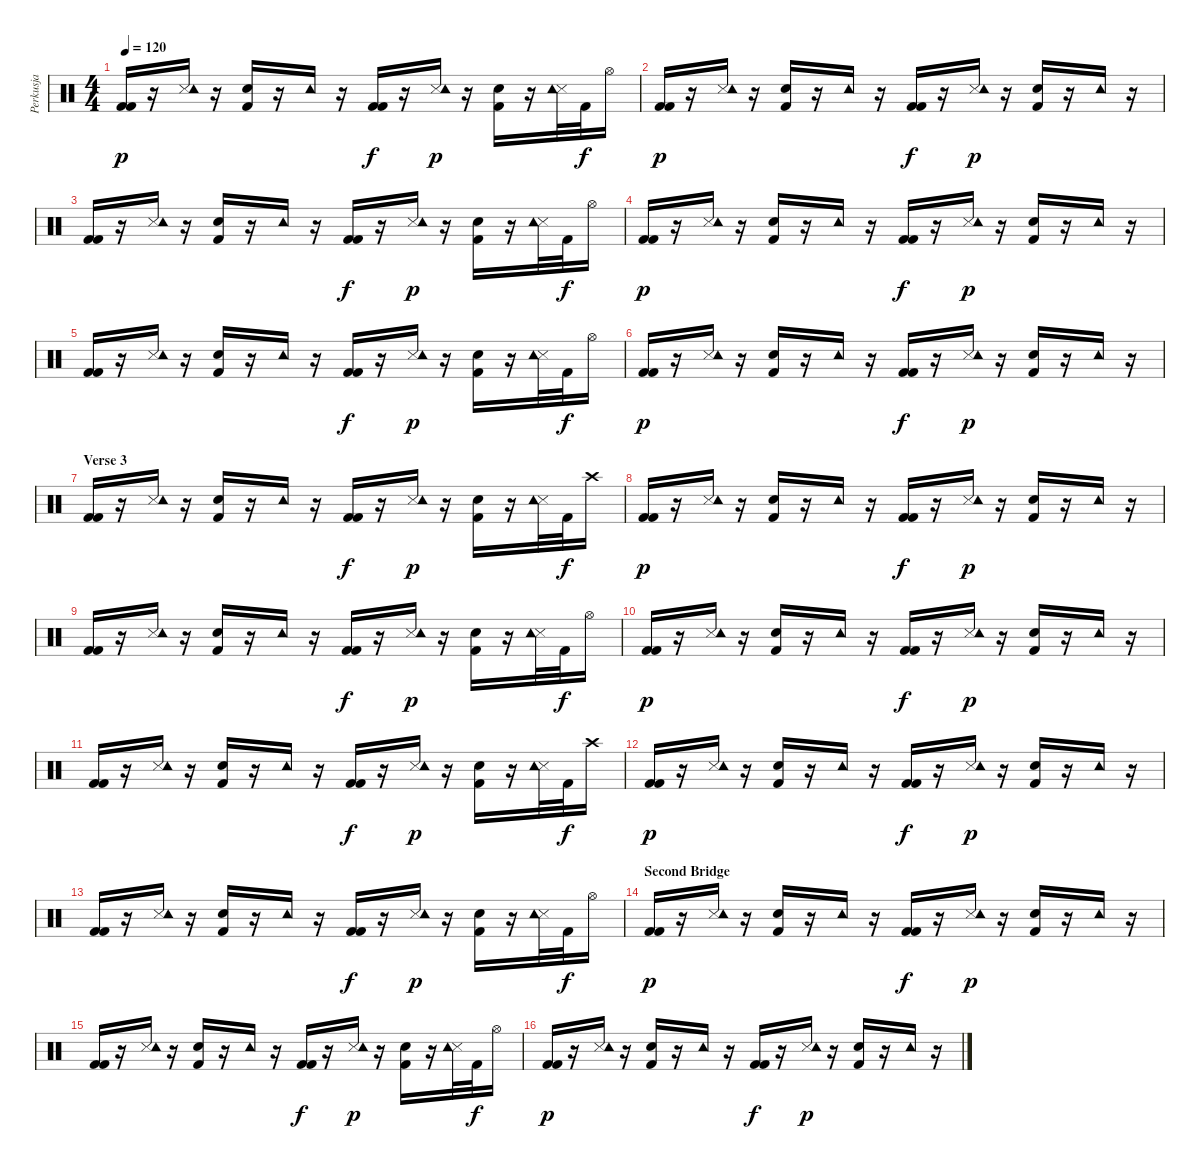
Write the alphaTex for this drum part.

\track ("Perkusja" "Perkusja") {instrument percussion}
\staff {score}
\articulation defaults
\ts (4 4)
\tempo 120
\clef neutral
\ks c
("Kick (hit) 2" "Kick (hit) 2").16{dy p} r.16 ("Snare (side stick) 3" "Tambourine (hit)").16 r.16 ("Electric Snare (hit)" "Kick (hit) 2").16 r.16 "Tambourine (hit)".16 r.16 ("Kick (hit) 2" "Kick (hit) 2").16{dy f} r.16 ("Snare (side stick) 3" "Tambourine (hit)").16{dy p} r.16 ("Electric Snare (hit)" "Kick (hit) 2").16 r.16 ("Snare (side stick) 3" "Tambourine (hit)").32 "Kick (hit) 2".32{dy f} "Hi-Hat (open)".16 |
("Kick (hit) 2" "Kick (hit) 2").16{dy p} r.16 ("Snare (side stick) 3" "Tambourine (hit)").16 r.16 ("Electric Snare (hit)" "Kick (hit) 2").16 r.16 "Tambourine (hit)".16 r.16 ("Kick (hit) 2" "Kick (hit) 2").16{dy f} r.16 ("Snare (side stick) 3" "Tambourine (hit)").16{dy p} r.16 ("Electric Snare (hit)" "Kick (hit) 2").16 r.16 "Tambourine (hit)".16 r.16 |
("Kick (hit) 2" "Kick (hit) 2").16 r.16 ("Snare (side stick) 3" "Tambourine (hit)").16 r.16 ("Electric Snare (hit)" "Kick (hit) 2").16 r.16 "Tambourine (hit)".16 r.16 ("Kick (hit) 2" "Kick (hit) 2").16{dy f} r.16 ("Snare (side stick) 3" "Tambourine (hit)").16{dy p} r.16 ("Electric Snare (hit)" "Kick (hit) 2").16 r.16 ("Snare (side stick) 3" "Tambourine (hit)").32 "Kick (hit) 2".32{dy f} "Hi-Hat (open)".16 |
("Kick (hit) 2" "Kick (hit) 2").16{dy p} r.16 ("Snare (side stick) 3" "Tambourine (hit)").16 r.16 ("Electric Snare (hit)" "Kick (hit) 2").16 r.16 "Tambourine (hit)".16 r.16 ("Kick (hit) 2" "Kick (hit) 2").16{dy f} r.16 ("Snare (side stick) 3" "Tambourine (hit)").16{dy p} r.16 ("Electric Snare (hit)" "Kick (hit) 2").16 r.16 "Tambourine (hit)".16 r.16 |
("Kick (hit) 2" "Kick (hit) 2").16 r.16 ("Snare (side stick) 3" "Tambourine (hit)").16 r.16 ("Electric Snare (hit)" "Kick (hit) 2").16 r.16 "Tambourine (hit)".16 r.16 ("Kick (hit) 2" "Kick (hit) 2").16{dy f} r.16 ("Snare (side stick) 3" "Tambourine (hit)").16{dy p} r.16 ("Electric Snare (hit)" "Kick (hit) 2").16 r.16 ("Snare (side stick) 3" "Tambourine (hit)").32 "Kick (hit) 2".32{dy f} "Hi-Hat (open)".16 |
("Kick (hit) 2" "Kick (hit) 2").16{dy p} r.16 ("Snare (side stick) 3" "Tambourine (hit)").16 r.16 ("Electric Snare (hit)" "Kick (hit) 2").16 r.16 "Tambourine (hit)".16 r.16 ("Kick (hit) 2" "Kick (hit) 2").16{dy f} r.16 ("Snare (side stick) 3" "Tambourine (hit)").16{dy p} r.16 ("Electric Snare (hit)" "Kick (hit) 2").16 r.16 "Tambourine (hit)".16 r.16 |
\section ("" "Verse 3")
("Kick (hit) 2" "Kick (hit) 2").16 r.16 ("Snare (side stick) 3" "Tambourine (hit)").16 r.16 ("Electric Snare (hit)" "Kick (hit) 2").16 r.16 "Tambourine (hit)".16 r.16 ("Kick (hit) 2" "Kick (hit) 2").16{dy f} r.16 ("Snare (side stick) 3" "Tambourine (hit)").16{dy p} r.16 ("Electric Snare (hit)" "Kick (hit) 2").16 r.16 ("Snare (side stick) 3" "Tambourine (hit)").32 "Kick (hit) 2".32{dy f} "Crash high (hit)".16 |
("Kick (hit) 2" "Kick (hit) 2").16{dy p} r.16 ("Snare (side stick) 3" "Tambourine (hit)").16 r.16 ("Electric Snare (hit)" "Kick (hit) 2").16 r.16 "Tambourine (hit)".16 r.16 ("Kick (hit) 2" "Kick (hit) 2").16{dy f} r.16 ("Snare (side stick) 3" "Tambourine (hit)").16{dy p} r.16 ("Electric Snare (hit)" "Kick (hit) 2").16 r.16 "Tambourine (hit)".16 r.16 |
("Kick (hit) 2" "Kick (hit) 2").16 r.16 ("Snare (side stick) 3" "Tambourine (hit)").16 r.16 ("Electric Snare (hit)" "Kick (hit) 2").16 r.16 "Tambourine (hit)".16 r.16 ("Kick (hit) 2" "Kick (hit) 2").16{dy f} r.16 ("Snare (side stick) 3" "Tambourine (hit)").16{dy p} r.16 ("Electric Snare (hit)" "Kick (hit) 2").16 r.16 ("Snare (side stick) 3" "Tambourine (hit)").32 "Kick (hit) 2".32{dy f} "Hi-Hat (open)".16 |
("Kick (hit) 2" "Kick (hit) 2").16{dy p} r.16 ("Snare (side stick) 3" "Tambourine (hit)").16 r.16 ("Electric Snare (hit)" "Kick (hit) 2").16 r.16 "Tambourine (hit)".16 r.16 ("Kick (hit) 2" "Kick (hit) 2").16{dy f} r.16 ("Snare (side stick) 3" "Tambourine (hit)").16{dy p} r.16 ("Electric Snare (hit)" "Kick (hit) 2").16 r.16 "Tambourine (hit)".16 r.16 |
("Kick (hit) 2" "Kick (hit) 2").16 r.16 ("Snare (side stick) 3" "Tambourine (hit)").16 r.16 ("Electric Snare (hit)" "Kick (hit) 2").16 r.16 "Tambourine (hit)".16 r.16 ("Kick (hit) 2" "Kick (hit) 2").16{dy f} r.16 ("Snare (side stick) 3" "Tambourine (hit)").16{dy p} r.16 ("Electric Snare (hit)" "Kick (hit) 2").16 r.16 ("Snare (side stick) 3" "Tambourine (hit)").32 "Kick (hit) 2".32{dy f} "Crash high (hit)".16 |
("Kick (hit) 2" "Kick (hit) 2").16{dy p} r.16 ("Snare (side stick) 3" "Tambourine (hit)").16 r.16 ("Electric Snare (hit)" "Kick (hit) 2").16 r.16 "Tambourine (hit)".16 r.16 ("Kick (hit) 2" "Kick (hit) 2").16{dy f} r.16 ("Snare (side stick) 3" "Tambourine (hit)").16{dy p} r.16 ("Electric Snare (hit)" "Kick (hit) 2").16 r.16 "Tambourine (hit)".16 r.16 |
("Kick (hit) 2" "Kick (hit) 2").16 r.16 ("Snare (side stick) 3" "Tambourine (hit)").16 r.16 ("Electric Snare (hit)" "Kick (hit) 2").16 r.16 "Tambourine (hit)".16 r.16 ("Kick (hit) 2" "Kick (hit) 2").16{dy f} r.16 ("Snare (side stick) 3" "Tambourine (hit)").16{dy p} r.16 ("Electric Snare (hit)" "Kick (hit) 2").16 r.16 ("Snare (side stick) 3" "Tambourine (hit)").32 "Kick (hit) 2".32{dy f} "Hi-Hat (open)".16 |
\section ("" "Second Bridge")
("Kick (hit) 2" "Kick (hit) 2").16{dy p} r.16 ("Snare (side stick) 3" "Tambourine (hit)").16 r.16 ("Electric Snare (hit)" "Kick (hit) 2").16 r.16 "Tambourine (hit)".16 r.16 ("Kick (hit) 2" "Kick (hit) 2").16{dy f} r.16 ("Snare (side stick) 3" "Tambourine (hit)").16{dy p} r.16 ("Electric Snare (hit)" "Kick (hit) 2").16 r.16 "Tambourine (hit)".16 r.16 |
("Kick (hit) 2" "Kick (hit) 2").16 r.16 ("Snare (side stick) 3" "Tambourine (hit)").16 r.16 ("Electric Snare (hit)" "Kick (hit) 2").16 r.16 "Tambourine (hit)".16 r.16 ("Kick (hit) 2" "Kick (hit) 2").16{dy f} r.16 ("Snare (side stick) 3" "Tambourine (hit)").16{dy p} r.16 ("Electric Snare (hit)" "Kick (hit) 2").16 r.16 ("Snare (side stick) 3" "Tambourine (hit)").32 "Kick (hit) 2".32{dy f} "Hi-Hat (open)".16 |
("Kick (hit) 2" "Kick (hit) 2").16{dy p} r.16 ("Snare (side stick) 3" "Tambourine (hit)").16 r.16 ("Electric Snare (hit)" "Kick (hit) 2").16 r.16 "Tambourine (hit)".16 r.16 ("Kick (hit) 2" "Kick (hit) 2").16{dy f} r.16 ("Snare (side stick) 3" "Tambourine (hit)").16{dy p} r.16 ("Electric Snare (hit)" "Kick (hit) 2").16 r.16 "Tambourine (hit)".16 r.16
